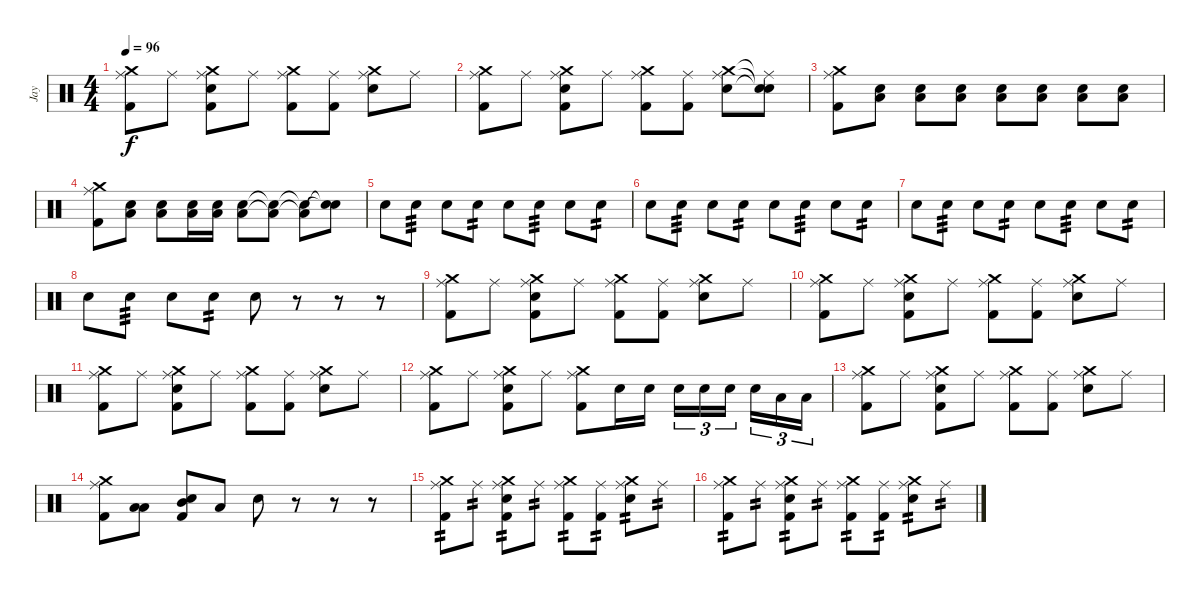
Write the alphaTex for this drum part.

\track ("Jay" "Jay") {instrument percussion}
\staff {score}
\articulation defaults
\ts (4 4)
\tempo 96
\clef neutral
\ks c
("Crash medium (hit)" "Ride (middle)" "Kick (hit) 2").8{dy f} "Ride (middle)".8 ("Crash medium (hit)" "Electric Snare (hit)" "Kick (hit) 2" "Ride (middle)").8 "Ride (middle)".8 ("Crash medium (hit)" "Ride (middle)" "Kick (hit) 2").8 ("Ride (middle)" "Kick (hit) 2").8 ("Crash medium (hit)" "Ride (middle)" "Electric Snare (hit)").8 "Ride (middle)".8 |
("Crash medium (hit)" "Ride (middle)" "Kick (hit) 2").8 "Ride (middle)".8 ("Crash medium (hit)" "Electric Snare (hit)" "Kick (hit) 2" "Ride (middle)").8 "Ride (middle)".8 ("Crash medium (hit)" "Ride (middle)" "Kick (hit) 2").8 ("Ride (middle)" "Kick (hit) 2").8 ("Crash medium (hit)" "Ride (middle)" "Electric Snare (hit)").8 ("Ride (middle)"{t} "Snare (hit)"{t} "Snare (hit)"{t}).8 |
("Crash medium (hit)" "Ride (middle)" "Kick (hit) 2").8 ("Electric Snare (hit)" "Low Tom (hit)").8 ("Electric Snare (hit)" "Low Tom (hit)").8 ("Electric Snare (hit)" "Low Tom (hit)").8 ("Electric Snare (hit)" "Low Tom (hit)").8 ("Electric Snare (hit)" "Low Tom (hit)").8 ("Electric Snare (hit)" "Low Tom (hit)").8 ("Electric Snare (hit)" "Low Tom (hit)").8 |
("Crash medium (hit)" "Ride (middle)" "Kick (hit) 2").8 ("Electric Snare (hit)" "Low Tom (hit)").8 ("Electric Snare (hit)" "Low Tom (hit)").8 ("Electric Snare (hit)" "Low Tom (hit)").16 ("Electric Snare (hit)" "Low Tom (hit)").16 ("Electric Snare (hit)" "Low Tom (hit)").8 ("Electric Snare (hit)"{t} "Low Tom (hit)"{t}).8 ("Electric Snare (hit)"{t} "Low Tom (hit)"{t}).8 ("Snare (hit)"{t} "Snare (hit)"{t}).8 |
"Electric Snare (hit)".8 "Electric Snare (hit)".8{tp 3} "Electric Snare (hit)".8 "Electric Snare (hit)".8{tp 2} "Electric Snare (hit)".8 "Electric Snare (hit)".8{tp 3} "Electric Snare (hit)".8 "Electric Snare (hit)".8{tp 2} |
"Electric Snare (hit)".8 "Electric Snare (hit)".8{tp 3} "Electric Snare (hit)".8 "Electric Snare (hit)".8{tp 2} "Electric Snare (hit)".8 "Electric Snare (hit)".8{tp 3} "Electric Snare (hit)".8 "Electric Snare (hit)".8{tp 2} |
"Electric Snare (hit)".8 "Electric Snare (hit)".8{tp 3} "Electric Snare (hit)".8 "Electric Snare (hit)".8{tp 2} "Electric Snare (hit)".8 "Electric Snare (hit)".8{tp 3} "Electric Snare (hit)".8 "Electric Snare (hit)".8{tp 2} |
"Electric Snare (hit)".8 "Electric Snare (hit)".8{tp 3} "Electric Snare (hit)".8 "Electric Snare (hit)".8{tp 2} "Electric Snare (hit)".8 r.8 r.8 r.8 |
("Crash medium (hit)" "Ride (middle)" "Kick (hit) 2").8 "Ride (middle)".8 ("Crash medium (hit)" "Electric Snare (hit)" "Kick (hit) 2" "Ride (middle)").8 "Ride (middle)".8 ("Crash medium (hit)" "Ride (middle)" "Kick (hit) 2").8 ("Ride (middle)" "Kick (hit) 2").8 ("Crash medium (hit)" "Ride (middle)" "Electric Snare (hit)").8 "Ride (middle)".8 |
("Crash medium (hit)" "Ride (middle)" "Kick (hit) 2").8 "Ride (middle)".8 ("Crash medium (hit)" "Electric Snare (hit)" "Kick (hit) 2" "Ride (middle)").8 "Ride (middle)".8 ("Crash medium (hit)" "Ride (middle)" "Kick (hit) 2").8 ("Ride (middle)" "Kick (hit) 2").8 ("Crash medium (hit)" "Ride (middle)" "Electric Snare (hit)").8 "Ride (middle)".8 |
("Crash medium (hit)" "Ride (middle)" "Kick (hit) 2").8 "Ride (middle)".8 ("Crash medium (hit)" "Electric Snare (hit)" "Kick (hit) 2" "Ride (middle)").8 "Ride (middle)".8 ("Crash medium (hit)" "Ride (middle)" "Kick (hit) 2").8 ("Ride (middle)" "Kick (hit) 2").8 ("Crash medium (hit)" "Ride (middle)" "Electric Snare (hit)").8 "Ride (middle)".8 |
("Crash medium (hit)" "Ride (middle)" "Kick (hit) 2").8 "Ride (middle)".8 ("Crash medium (hit)" "Electric Snare (hit)" "Kick (hit) 2" "Ride (middle)").8 "Ride (middle)".8 ("Crash medium (hit)" "Ride (middle)" "Kick (hit) 2").8 "Electric Snare (hit)".16 "Electric Snare (hit)".16 "Electric Snare (hit)".16{tu (3 2)} "Electric Snare (hit)".16{tu (3 2)} "Electric Snare (hit)".16{tu (3 2) beam splitsecondary} "Electric Snare (hit)".16{tu (3 2)} "Low Tom (hit)".16{tu (3 2)} "Low Tom (hit)".16{tu (3 2)} |
("Crash medium (hit)" "Ride (middle)" "Kick (hit) 2").8 "Ride (middle)".8 ("Crash medium (hit)" "Electric Snare (hit)" "Kick (hit) 2" "Ride (middle)").8 "Ride (middle)".8 ("Crash medium (hit)" "Ride (middle)" "Kick (hit) 2").8 ("Ride (middle)" "Kick (hit) 2").8 ("Crash medium (hit)" "Ride (middle)" "Electric Snare (hit)").8 "Ride (middle)".8 |
("Crash medium (hit)" "Ride (middle)" "Kick (hit) 2").8 ("Low Tom (hit)" "Low Tom (hit)").8 ("Mid Tom (hit)" "Electric Snare (hit)" "Kick (hit) 2").8 "Low Tom (hit)".8 "Electric Snare (hit)".8 r.8 r.8 r.8 |
("Crash medium (hit)" "Ride (middle)" "Kick (hit) 2").8{tp 2} "Ride (middle)".8{tp 2} ("Crash medium (hit)" "Electric Snare (hit)" "Kick (hit) 2" "Ride (middle)").8{tp 2} "Ride (middle)".8{tp 2} ("Crash medium (hit)" "Ride (middle)" "Kick (hit) 2").8{tp 2} ("Ride (middle)" "Kick (hit) 2").8{tp 2} ("Crash medium (hit)" "Ride (middle)" "Electric Snare (hit)").8{tp 2} "Ride (middle)".8{tp 2} |
("Crash medium (hit)" "Ride (middle)" "Kick (hit) 2").8{tp 2} "Ride (middle)".8{tp 2} ("Crash medium (hit)" "Electric Snare (hit)" "Kick (hit) 2" "Ride (middle)").8{tp 2} "Ride (middle)".8{tp 2} ("Crash medium (hit)" "Ride (middle)" "Kick (hit) 2").8{tp 2} ("Ride (middle)" "Kick (hit) 2").8{tp 2} ("Crash medium (hit)" "Ride (middle)" "Electric Snare (hit)").8{tp 2} "Ride (middle)".8{tp 2}
